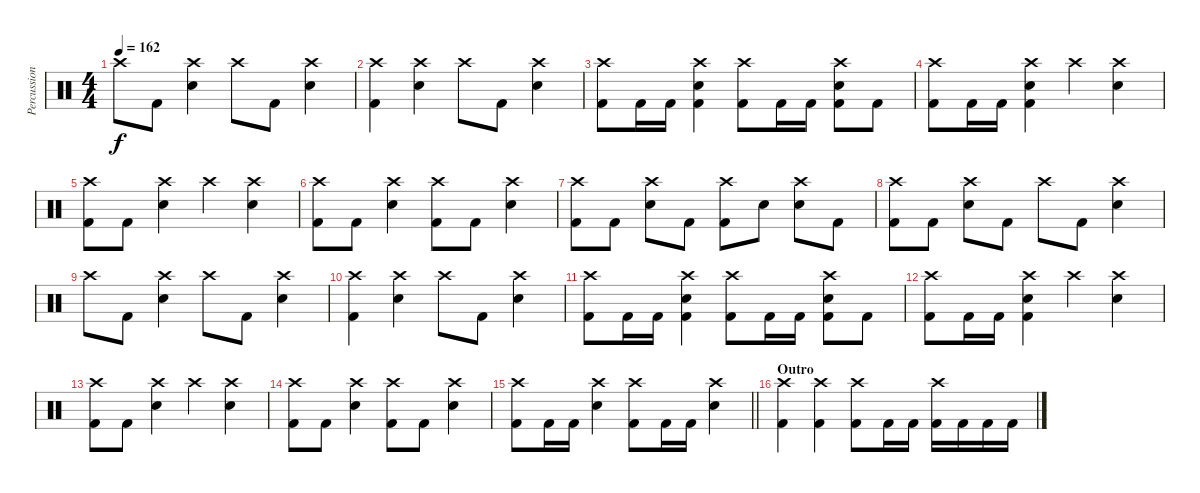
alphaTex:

\track ("Percussion" "Percussion") {instrument percussion}
\staff {score}
\articulation defaults
\ts (4 4)
\tempo 162
\clef neutral
\ks c "Crash high (hit)".8{dy f} "Kick (hit) 2".8
("Crash high (hit)" "Electric Snare (hit)").4 "Crash high (hit)".8 "Kick (hit) 2".8 ("Crash high (hit)" "Electric Snare (hit)").4 |
("Crash high (hit)" "Kick (hit) 2").4 ("Crash high (hit)" "Electric Snare (hit)").4 "Crash high (hit)".8 "Kick (hit) 2".8 ("Crash high (hit)" "Electric Snare (hit)").4 |
("Crash high (hit)" "Kick (hit) 2").8 "Kick (hit) 2".16 "Kick (hit) 2".16 ("Crash high (hit)" "Electric Snare (hit)" "Kick (hit) 2").4 ("Crash high (hit)" "Kick (hit) 2").8 "Kick (hit) 2".16 "Kick (hit) 2".16 ("Crash high (hit)" "Electric Snare (hit)" "Kick (hit) 2").8 "Kick (hit) 2".8 |
("Crash high (hit)" "Kick (hit) 2").8 "Kick (hit) 2".16 "Kick (hit) 2".16 ("Crash high (hit)" "Electric Snare (hit)" "Kick (hit) 2").4 "Crash high (hit)".4 ("Crash high (hit)" "Electric Snare (hit)").4 |
("Crash high (hit)" "Kick (hit) 2").8 "Kick (hit) 2".8 ("Crash high (hit)" "Electric Snare (hit)").4 "Crash high (hit)".4 ("Crash high (hit)" "Electric Snare (hit)").4 |
("Crash high (hit)" "Kick (hit) 2").8 "Kick (hit) 2".8 ("Crash high (hit)" "Electric Snare (hit)").4 ("Crash high (hit)" "Kick (hit) 2").8 "Kick (hit) 2".8 ("Crash high (hit)" "Electric Snare (hit)").4 |
("Crash high (hit)" "Kick (hit) 2").8 "Kick (hit) 2".8 ("Crash high (hit)" "Electric Snare (hit)").8 "Kick (hit) 2".8 ("Crash high (hit)" "Kick (hit) 2").8 "Electric Snare (hit)".8 ("Crash high (hit)" "Electric Snare (hit)").8 "Kick (hit) 2".8 |
("Crash high (hit)" "Kick (hit) 2").8 "Kick (hit) 2".8 ("Crash high (hit)" "Electric Snare (hit)").8 "Kick (hit) 2".8 "Crash high (hit)".8 "Kick (hit) 2".8 ("Crash high (hit)" "Electric Snare (hit)").4 |
"Crash high (hit)".8 "Kick (hit) 2".8 ("Crash high (hit)" "Electric Snare (hit)").4 "Crash high (hit)".8 "Kick (hit) 2".8 ("Crash high (hit)" "Electric Snare (hit)").4 |
("Crash high (hit)" "Kick (hit) 2").4 ("Crash high (hit)" "Electric Snare (hit)").4 "Crash high (hit)".8 "Kick (hit) 2".8 ("Crash high (hit)" "Electric Snare (hit)").4 |
("Crash high (hit)" "Kick (hit) 2").8 "Kick (hit) 2".16 "Kick (hit) 2".16 ("Crash high (hit)" "Electric Snare (hit)" "Kick (hit) 2").4 ("Crash high (hit)" "Kick (hit) 2").8 "Kick (hit) 2".16 "Kick (hit) 2".16 ("Crash high (hit)" "Electric Snare (hit)" "Kick (hit) 2").8 "Kick (hit) 2".8 |
("Crash high (hit)" "Kick (hit) 2").8 "Kick (hit) 2".16 "Kick (hit) 2".16 ("Crash high (hit)" "Electric Snare (hit)" "Kick (hit) 2").4 "Crash high (hit)".4 ("Crash high (hit)" "Electric Snare (hit)").4 |
("Crash high (hit)" "Kick (hit) 2").8 "Kick (hit) 2".8 ("Crash high (hit)" "Electric Snare (hit)").4 "Crash high (hit)".4 ("Crash high (hit)" "Electric Snare (hit)").4 |
("Crash high (hit)" "Kick (hit) 2").8 "Kick (hit) 2".8 ("Crash high (hit)" "Electric Snare (hit)").4 ("Crash high (hit)" "Kick (hit) 2").8 "Kick (hit) 2".8 ("Crash high (hit)" "Electric Snare (hit)").4 |
\barLineRight lightlight
("Crash high (hit)" "Kick (hit) 2").8 "Kick (hit) 2".16 "Kick (hit) 2".16 ("Crash high (hit)" "Electric Snare (hit)").4 ("Crash high (hit)" "Kick (hit) 2").8 "Kick (hit) 2".16 "Kick (hit) 2".16 ("Crash high (hit)" "Electric Snare (hit)").4 |
\section ("" "Outro")
("Crash high (hit)" "Kick (hit) 2").4 ("Crash high (hit)" "Kick (hit) 2").4 ("Crash high (hit)" "Kick (hit) 2").8 "Kick (hit) 2".16 "Kick (hit) 2".16 ("Crash high (hit)" "Kick (hit) 2").16 "Kick (hit) 2".16 "Kick (hit) 2".16 "Kick (hit) 2".16
